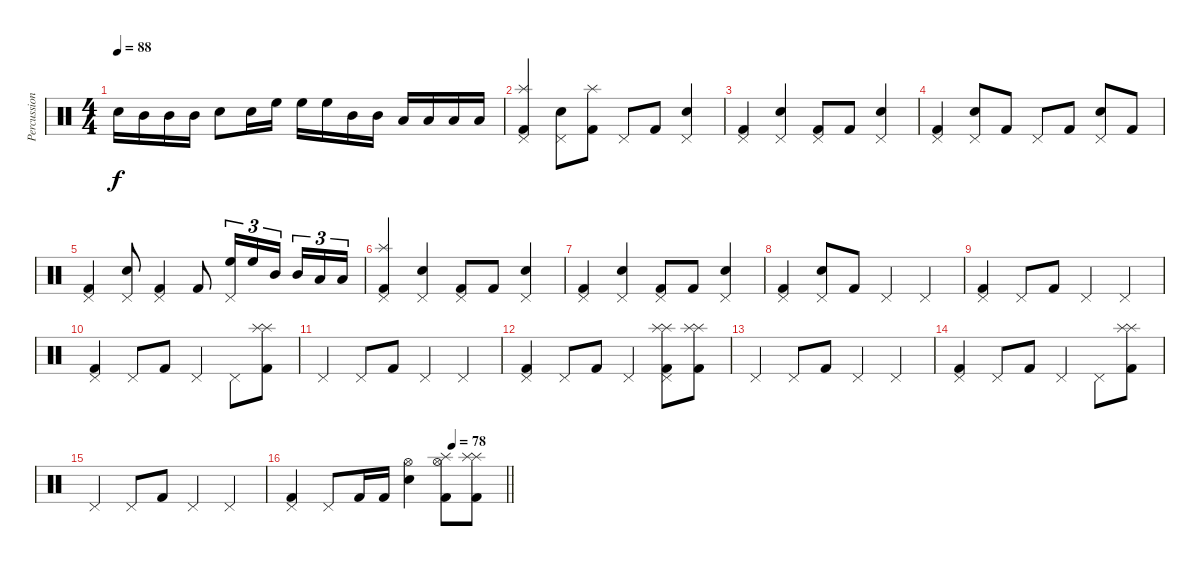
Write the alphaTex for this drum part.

\track ("Percussion" "Percussion") {instrument percussion}
\staff {score}
\articulation defaults
\ts (4 4)
\tempo 88
\clef neutral
\ks c "Snare (hit) 2".16{dy f} "Mid Tom (hit)".16 "Mid Tom (hit)".16 "Mid Tom (hit)".16 "Snare (hit) 2".8 "Snare (hit) 2".16 "High Floor Tom (hit)".16 "High Floor Tom (hit)".16 "High Floor Tom (hit)".16 "Mid Tom (hit)".16 "Mid Tom (hit)".16 "Low Tom (hit)".16 "Low Tom (hit)".16 "Low Tom (hit)".16 "Low Tom (hit)".16
|
("Pedal Hi-Hat (hit)" "Splash (hit)" "Kick (hit) 2").4 ("Pedal Hi-Hat (hit)" "Snare (hit) 2").8 ("Splash (hit)" "Kick (hit) 2").8 "Pedal Hi-Hat (hit)".8 "Kick (hit) 2".8 ("Pedal Hi-Hat (hit)" "Snare (hit) 2").4 |
("Pedal Hi-Hat (hit)" "Kick (hit) 2").4 ("Pedal Hi-Hat (hit)" "Snare (hit) 2").4 ("Pedal Hi-Hat (hit)" "Kick (hit) 2").8 "Kick (hit) 2".8 ("Pedal Hi-Hat (hit)" "Snare (hit) 2").4 |
("Pedal Hi-Hat (hit)" "Kick (hit) 2").4 ("Pedal Hi-Hat (hit)" "Snare (hit) 2").8 "Kick (hit) 2".8 "Pedal Hi-Hat (hit)".8 "Kick (hit) 2".8 ("Pedal Hi-Hat (hit)" "Snare (hit) 2").8 "Kick (hit) 2".8 |
("Pedal Hi-Hat (hit)" "Kick (hit) 2").4 ("Pedal Hi-Hat (hit)" "Snare (hit) 2").8 ("Pedal Hi-Hat (hit)" "Kick (hit) 2").4 "Kick (hit) 2".8 ("Pedal Hi-Hat (hit)" "High Floor Tom (hit)").16{tu (3 2)} "High Floor Tom (hit)".16{tu (3 2)} "Mid Tom (hit)".16{tu (3 2)} "Mid Tom (hit)".16{tu (3 2)} "Low Tom (hit)".16{tu (3 2)} "Low Tom (hit)".16{tu (3 2)} |
("Pedal Hi-Hat (hit)" "Splash (hit)" "Kick (hit) 2").4 ("Pedal Hi-Hat (hit)" "Snare (hit) 2").4 ("Pedal Hi-Hat (hit)" "Kick (hit) 2").8 "Kick (hit) 2".8 ("Pedal Hi-Hat (hit)" "Snare (hit) 2").4 |
("Pedal Hi-Hat (hit)" "Kick (hit) 2").4 ("Pedal Hi-Hat (hit)" "Snare (hit) 2").4 ("Pedal Hi-Hat (hit)" "Kick (hit) 2").8 "Kick (hit) 2".8 ("Pedal Hi-Hat (hit)" "Snare (hit) 2").4 |
("Pedal Hi-Hat (hit)" "Kick (hit) 2").4 ("Pedal Hi-Hat (hit)" "Snare (hit) 2").8 "Kick (hit) 2".8 "Pedal Hi-Hat (hit)".4 "Pedal Hi-Hat (hit)".4 |
("Pedal Hi-Hat (hit)" "Kick (hit) 2").4 "Pedal Hi-Hat (hit)".8 "Kick (hit) 2".8 "Pedal Hi-Hat (hit)".4 "Pedal Hi-Hat (hit)".4 |
("Pedal Hi-Hat (hit)" "Kick (hit) 2").4 "Pedal Hi-Hat (hit)".8 "Kick (hit) 2".8 "Pedal Hi-Hat (hit)".4 "Pedal Hi-Hat (hit)".8 ("Splash (hit)" "Splash (hit)" "Kick (hit) 2").8 |
"Pedal Hi-Hat (hit)".4 "Pedal Hi-Hat (hit)".8 "Kick (hit) 2".8 "Pedal Hi-Hat (hit)".4 "Pedal Hi-Hat (hit)".4 |
("Pedal Hi-Hat (hit)" "Kick (hit) 2").4 "Pedal Hi-Hat (hit)".8 "Kick (hit) 2".8 "Pedal Hi-Hat (hit)".4 ("Pedal Hi-Hat (hit)" "Splash (hit)" "Splash (hit)" "Kick (hit) 2").8 ("Splash (hit)" "Splash (hit)" "Kick (hit) 2").8 |
"Pedal Hi-Hat (hit)".4 "Pedal Hi-Hat (hit)".8 "Kick (hit) 2".8 "Pedal Hi-Hat (hit)".4 "Pedal Hi-Hat (hit)".4 |
("Pedal Hi-Hat (hit)" "Kick (hit) 2").4 "Pedal Hi-Hat (hit)".8 "Kick (hit) 2".8 "Pedal Hi-Hat (hit)".4 "Pedal Hi-Hat (hit)".8 ("Splash (hit)" "Splash (hit)" "Kick (hit) 2").8 |
"Pedal Hi-Hat (hit)".4 "Pedal Hi-Hat (hit)".8 "Kick (hit) 2".8 "Pedal Hi-Hat (hit)".4 "Pedal Hi-Hat (hit)".4 |
\tempo (78 0.75)
\barLineRight lightlight
("Pedal Hi-Hat (hit)" "Kick (hit) 2").4 "Pedal Hi-Hat (hit)".8 "Kick (hit) 2".16 "Kick (hit) 2".16 ("Hi-Hat (open)" "Snare (hit) 2").4 ("Hi-Hat (open)" "Splash (hit)" "Kick (hit) 2").8 ("Splash (hit)" "Splash (hit)" "Kick (hit) 2").8
